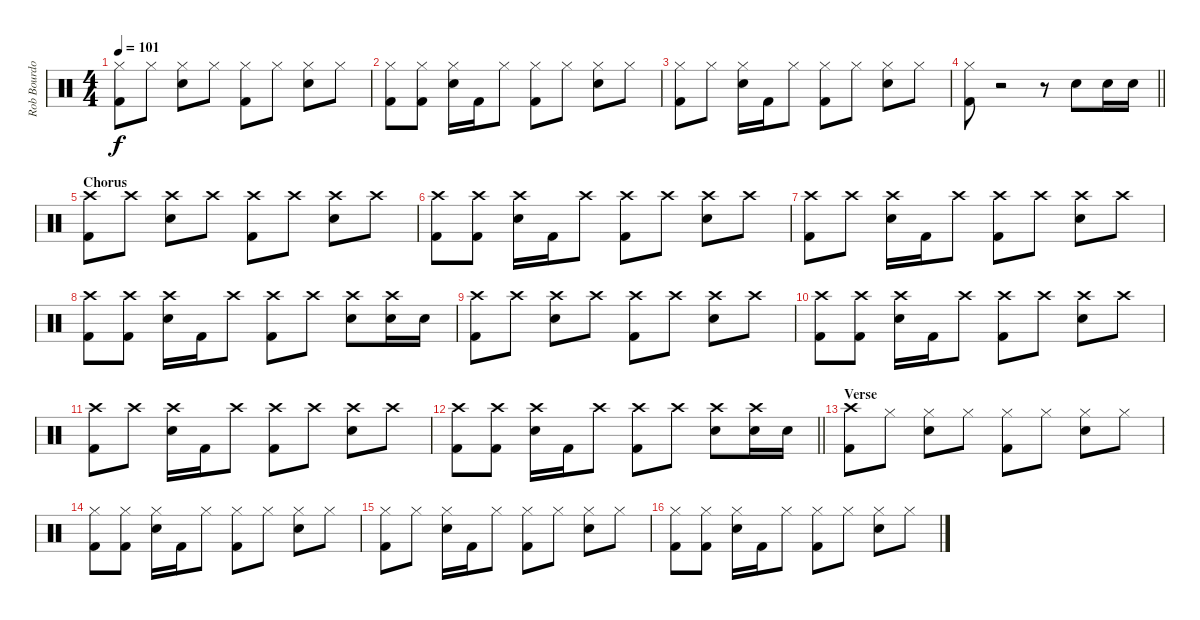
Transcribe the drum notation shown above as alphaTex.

\track ("Rob Bourdon" "Rob Bourdo") {instrument percussion}
\staff {score}
\articulation defaults
\ts (4 4)
\tempo 101
\clef neutral
\ks c
("Hi-Hat (closed)" "Kick (hit) 2").8{dy f} "Hi-Hat (closed)".8 ("Hi-Hat (closed)" "Electric Snare (hit)").8 "Hi-Hat (closed)".8 ("Hi-Hat (closed)" "Kick (hit) 2").8 "Hi-Hat (closed)".8 ("Hi-Hat (closed)" "Electric Snare (hit)").8 "Hi-Hat (closed)".8 |
("Hi-Hat (closed)" "Kick (hit) 2").8 ("Hi-Hat (closed)" "Kick (hit) 2").8 ("Hi-Hat (closed)" "Electric Snare (hit)").16 "Kick (hit) 2".16 "Hi-Hat (closed)".8 ("Hi-Hat (closed)" "Kick (hit) 2").8 "Hi-Hat (closed)".8 ("Hi-Hat (closed)" "Electric Snare (hit)").8 "Hi-Hat (closed)".8 |
("Hi-Hat (closed)" "Kick (hit) 2").8 "Hi-Hat (closed)".8 ("Hi-Hat (closed)" "Electric Snare (hit)").16 "Kick (hit) 2".16 "Hi-Hat (closed)".8 ("Hi-Hat (closed)" "Kick (hit) 2").8 "Hi-Hat (closed)".8 ("Hi-Hat (closed)" "Electric Snare (hit)").8 "Hi-Hat (closed)".8 |
\barLineRight lightlight
("Hi-Hat (closed)" "Kick (hit) 2").8 r.2 r.8 "Electric Snare (hit)".8 "Electric Snare (hit)".16 "Electric Snare (hit)".16 |
\section ("" "Chorus")
("Crash high (hit)" "Kick (hit) 2").8 "Crash high (hit)".8 ("Crash high (hit)" "Electric Snare (hit)").8 "Crash high (hit)".8 ("Crash high (hit)" "Kick (hit) 2").8 "Crash high (hit)".8 ("Crash high (hit)" "Electric Snare (hit)").8 "Crash high (hit)".8 |
("Crash high (hit)" "Kick (hit) 2").8 ("Crash high (hit)" "Kick (hit) 2").8 ("Crash high (hit)" "Electric Snare (hit)").16 "Kick (hit) 2".16 "Crash high (hit)".8 ("Crash high (hit)" "Kick (hit) 2").8 "Crash high (hit)".8 ("Crash high (hit)" "Electric Snare (hit)").8 "Crash high (hit)".8 |
("Crash high (hit)" "Kick (hit) 2").8 "Crash high (hit)".8 ("Crash high (hit)" "Electric Snare (hit)").16 "Kick (hit) 2".16 "Crash high (hit)".8 ("Crash high (hit)" "Kick (hit) 2").8 "Crash high (hit)".8 ("Crash high (hit)" "Electric Snare (hit)").8 "Crash high (hit)".8 |
("Crash high (hit)" "Kick (hit) 2").8 ("Crash high (hit)" "Kick (hit) 2").8 ("Crash high (hit)" "Electric Snare (hit)").16 "Kick (hit) 2".16 "Crash high (hit)".8 ("Crash high (hit)" "Kick (hit) 2").8 "Crash high (hit)".8 ("Crash high (hit)" "Electric Snare (hit)").8 ("Crash high (hit)" "Electric Snare (hit)").16 "Electric Snare (hit)".16 |
("Crash high (hit)" "Kick (hit) 2").8 "Crash high (hit)".8 ("Crash high (hit)" "Electric Snare (hit)").8 "Crash high (hit)".8 ("Crash high (hit)" "Kick (hit) 2").8 "Crash high (hit)".8 ("Crash high (hit)" "Electric Snare (hit)").8 "Crash high (hit)".8 |
("Crash high (hit)" "Kick (hit) 2").8 ("Crash high (hit)" "Kick (hit) 2").8 ("Crash high (hit)" "Electric Snare (hit)").16 "Kick (hit) 2".16 "Crash high (hit)".8 ("Crash high (hit)" "Kick (hit) 2").8 "Crash high (hit)".8 ("Crash high (hit)" "Electric Snare (hit)").8 "Crash high (hit)".8 |
("Crash high (hit)" "Kick (hit) 2").8 "Crash high (hit)".8 ("Crash high (hit)" "Electric Snare (hit)").16 "Kick (hit) 2".16 "Crash high (hit)".8 ("Crash high (hit)" "Kick (hit) 2").8 "Crash high (hit)".8 ("Crash high (hit)" "Electric Snare (hit)").8 "Crash high (hit)".8 |
\barLineRight lightlight
("Crash high (hit)" "Kick (hit) 2").8 ("Crash high (hit)" "Kick (hit) 2").8 ("Crash high (hit)" "Electric Snare (hit)").16 "Kick (hit) 2".16 "Crash high (hit)".8 ("Crash high (hit)" "Kick (hit) 2").8 "Crash high (hit)".8 ("Crash high (hit)" "Electric Snare (hit)").8 ("Crash high (hit)" "Electric Snare (hit)").16 "Electric Snare (hit)".16 |
\section ("" "Verse")
("Crash high (hit)" "Kick (hit) 2").8 "Hi-Hat (closed)".8 ("Hi-Hat (closed)" "Electric Snare (hit)").8 "Hi-Hat (closed)".8 ("Hi-Hat (closed)" "Kick (hit) 2").8 "Hi-Hat (closed)".8 ("Hi-Hat (closed)" "Electric Snare (hit)").8 "Hi-Hat (closed)".8 |
("Hi-Hat (closed)" "Kick (hit) 2").8 ("Hi-Hat (closed)" "Kick (hit) 2").8 ("Hi-Hat (closed)" "Electric Snare (hit)").16 "Kick (hit) 2".16 "Hi-Hat (closed)".8 ("Hi-Hat (closed)" "Kick (hit) 2").8 "Hi-Hat (closed)".8 ("Hi-Hat (closed)" "Electric Snare (hit)").8 "Hi-Hat (closed)".8 |
("Hi-Hat (closed)" "Kick (hit) 2").8 "Hi-Hat (closed)".8 ("Hi-Hat (closed)" "Electric Snare (hit)").16 "Kick (hit) 2".16 "Hi-Hat (closed)".8 ("Hi-Hat (closed)" "Kick (hit) 2").8 "Hi-Hat (closed)".8 ("Hi-Hat (closed)" "Electric Snare (hit)").8 "Hi-Hat (closed)".8 |
("Hi-Hat (closed)" "Kick (hit) 2").8 ("Hi-Hat (closed)" "Kick (hit) 2").8 ("Hi-Hat (closed)" "Electric Snare (hit)").16 "Kick (hit) 2".16 "Hi-Hat (closed)".8 ("Hi-Hat (closed)" "Kick (hit) 2").8 "Hi-Hat (closed)".8 ("Hi-Hat (closed)" "Electric Snare (hit)").8 "Hi-Hat (closed)".8
